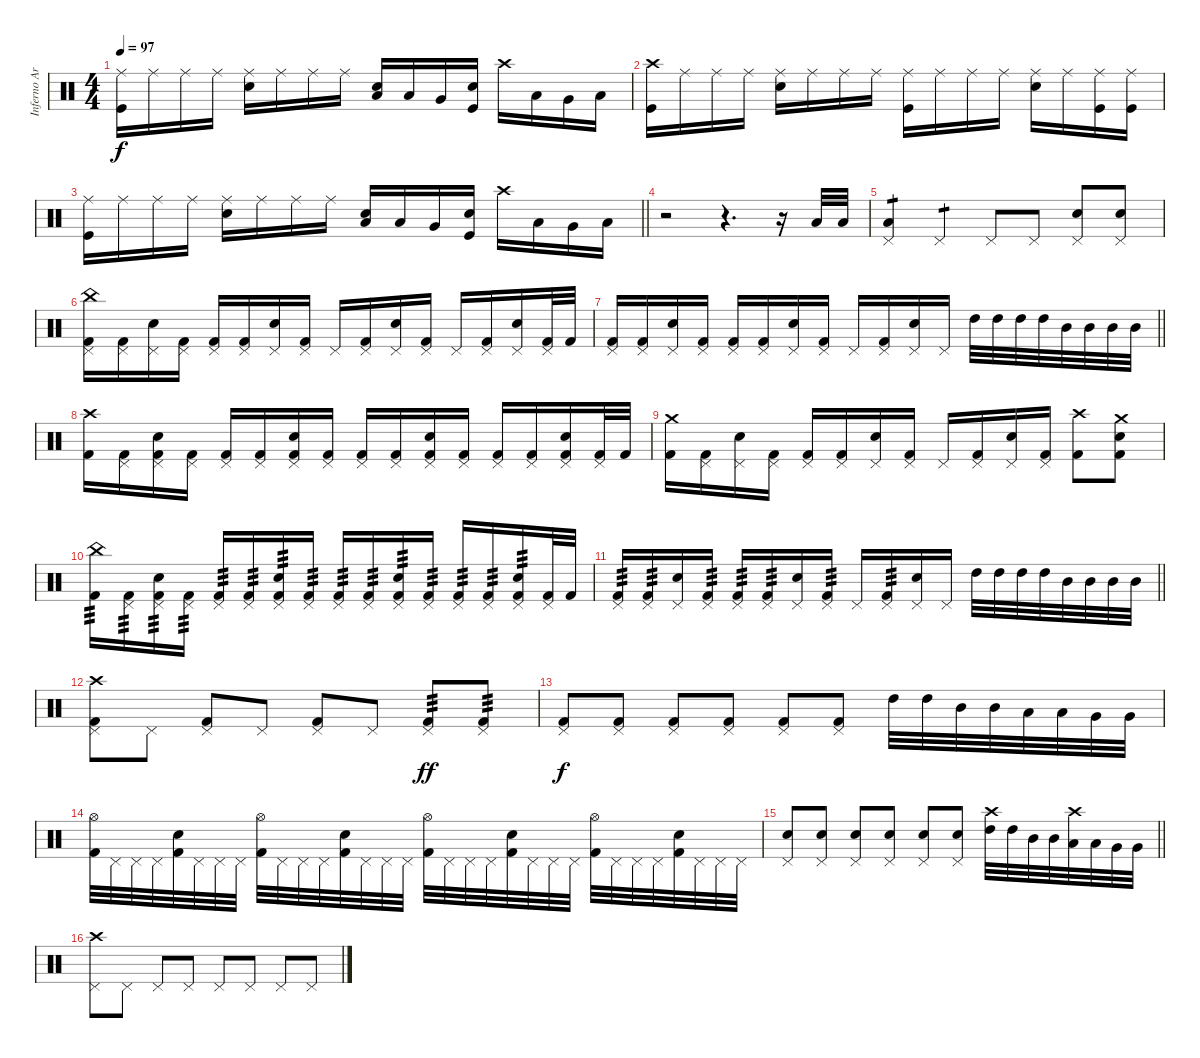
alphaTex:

\track ("Inferno Art" "Inferno Ar") {instrument percussion bank 7}
\staff {score}
\articulation defaults
\ts (4 4)
\tempo 97
\clef neutral
\ks c
("Ride (middle)" "Kick (hit)").16{dy f} "Ride (middle)".16 "Ride (middle)".16 "Ride (middle)".16 ("Ride (middle)" "Electric Snare (hit)").16 "Ride (middle)".16 "Ride (middle)".16 "Ride (middle)".16 ("Electric Snare (hit)" "Low Floor Tom (hit)").16 "Low Tom (hit)".16 "Very Low Tom (hit)".16 ("Electric Snare (hit)" "Kick (hit)").16 "Crash high (hit)".16 "Low Tom (hit)".16 "Very Low Tom (hit)".16 "Low Floor Tom (hit)".16 |
("Crash high (hit)" "Kick (hit)").16 "Ride (middle)".16 "Ride (middle)".16 "Ride (middle)".16 ("Ride (middle)" "Electric Snare (hit)").16 "Ride (middle)".16 "Ride (middle)".16 "Ride (middle)".16 ("Ride (middle)" "Kick (hit)").16 "Ride (middle)".16 "Ride (middle)".16 "Ride (middle)".16 ("Ride (middle)" "Electric Snare (hit)").16 "Ride (middle)".16 ("Ride (middle)" "Kick (hit)").16 ("Ride (middle)" "Kick (hit)").16 |
\barLineRight lightlight
("Ride (middle)" "Kick (hit)").16 "Ride (middle)".16 "Ride (middle)".16 "Ride (middle)".16 ("Ride (middle)" "Electric Snare (hit)").16 "Ride (middle)".16 "Ride (middle)".16 "Ride (middle)".16 ("Electric Snare (hit)" "Low Floor Tom (hit)").16 "Low Tom (hit)".16 "Very Low Tom (hit)".16 ("Electric Snare (hit)" "Kick (hit)").16 "Crash high (hit)".16 "Low Tom (hit)".16 "Very Low Tom (hit)".16 "Low Floor Tom (hit)".16 |
r.2 r.4{d} r.16 "Low Tom (hit)".32 "Low Tom (hit)".32 |
("Low Tom (hit)" "Pedal Hi-Hat (hit)").4{tp 1} "Pedal Hi-Hat (hit)".4{tp 1} "Pedal Hi-Hat (hit)".8 "Pedal Hi-Hat (hit)".8 ("Pedal Hi-Hat (hit)" "Snare (hit) 2").8 ("Pedal Hi-Hat (hit)" "Snare (hit) 2").8 |
("Pedal Hi-Hat (hit)" "Kick (hit) 2" "China (hit)").16 ("Pedal Hi-Hat (hit)" "Kick (hit) 2").16 ("Pedal Hi-Hat (hit)" "Electric Snare (hit)").16 ("Pedal Hi-Hat (hit)" "Kick (hit) 2").16 ("Pedal Hi-Hat (hit)" "Kick (hit) 2").16 ("Pedal Hi-Hat (hit)" "Kick (hit) 2").16 ("Pedal Hi-Hat (hit)" "Electric Snare (hit)").16 ("Pedal Hi-Hat (hit)" "Kick (hit) 2").16 "Pedal Hi-Hat (hit)".16 ("Pedal Hi-Hat (hit)" "Kick (hit) 2").16 ("Pedal Hi-Hat (hit)" "Electric Snare (hit)").16 ("Pedal Hi-Hat (hit)" "Kick (hit) 2").16 "Pedal Hi-Hat (hit)".16 ("Pedal Hi-Hat (hit)" "Kick (hit) 2").16 ("Pedal Hi-Hat (hit)" "Electric Snare (hit)").16 ("Pedal Hi-Hat (hit)" "Kick (hit) 2").32 "Kick (hit) 2".32 |
\barLineRight lightlight
("Pedal Hi-Hat (hit)" "Kick (hit) 2").16 ("Pedal Hi-Hat (hit)" "Kick (hit) 2").16 ("Pedal Hi-Hat (hit)" "Electric Snare (hit)").16 ("Pedal Hi-Hat (hit)" "Kick (hit) 2").16 ("Pedal Hi-Hat (hit)" "Kick (hit) 2").16 ("Pedal Hi-Hat (hit)" "Kick (hit) 2").16 ("Pedal Hi-Hat (hit)" "Electric Snare (hit)").16 ("Pedal Hi-Hat (hit)" "Kick (hit) 2").16 "Pedal Hi-Hat (hit)".16 ("Pedal Hi-Hat (hit)" "Kick (hit) 2").16 ("Pedal Hi-Hat (hit)" "Electric Snare (hit)").16 "Pedal Hi-Hat (hit)".16 "High Tom (hit)".32 "High Tom (hit)".32 "High Tom (hit)".32 "High Tom (hit)".32 "Mid Tom (hit)".32 "Mid Tom (hit)".32 "Mid Tom (hit)".32 "Mid Tom (hit)".32 |
("Crash high (hit)" "Kick (hit) 2").16 ("Pedal Hi-Hat (hit)" "Kick (hit) 2").16 ("Pedal Hi-Hat (hit)" "Electric Snare (hit)" "Kick (hit) 2").16 ("Pedal Hi-Hat (hit)" "Kick (hit) 2").16 ("Pedal Hi-Hat (hit)" "Kick (hit) 2").16 ("Pedal Hi-Hat (hit)" "Kick (hit) 2").16 ("Pedal Hi-Hat (hit)" "Electric Snare (hit)" "Kick (hit) 2").16 ("Pedal Hi-Hat (hit)" "Kick (hit) 2").16 ("Pedal Hi-Hat (hit)" "Kick (hit) 2").16 ("Pedal Hi-Hat (hit)" "Kick (hit) 2").16 ("Pedal Hi-Hat (hit)" "Electric Snare (hit)" "Kick (hit) 2").16 ("Pedal Hi-Hat (hit)" "Kick (hit) 2").16 ("Pedal Hi-Hat (hit)" "Kick (hit) 2").16 ("Pedal Hi-Hat (hit)" "Kick (hit) 2").16 ("Pedal Hi-Hat (hit)" "Electric Snare (hit)" "Kick (hit) 2").16 ("Pedal Hi-Hat (hit)" "Kick (hit) 2").32 "Kick (hit) 2".32 |
("Crash medium (hit)" "Kick (hit) 2").16 ("Pedal Hi-Hat (hit)" "Kick (hit) 2").16 ("Pedal Hi-Hat (hit)" "Electric Snare (hit)").16 ("Pedal Hi-Hat (hit)" "Kick (hit) 2").16 ("Pedal Hi-Hat (hit)" "Kick (hit) 2").16 ("Pedal Hi-Hat (hit)" "Kick (hit) 2").16 ("Pedal Hi-Hat (hit)" "Electric Snare (hit)").16 ("Pedal Hi-Hat (hit)" "Kick (hit) 2").16 "Pedal Hi-Hat (hit)".16 ("Pedal Hi-Hat (hit)" "Kick (hit) 2").16 ("Pedal Hi-Hat (hit)" "Electric Snare (hit)").16 ("Pedal Hi-Hat (hit)" "Kick (hit) 2").16 ("Crash high (hit)" "Kick (hit) 2").8 ("Crash medium (hit)" "Electric Snare (hit)" "Kick (hit) 2").8 |
("China (hit)" "Kick (hit) 2").16{tp 3} ("Pedal Hi-Hat (hit)" "Kick (hit) 2").16{tp 3} ("Pedal Hi-Hat (hit)" "Electric Snare (hit)" "Kick (hit) 2").16{tp 3} ("Pedal Hi-Hat (hit)" "Kick (hit) 2").16{tp 3} ("Pedal Hi-Hat (hit)" "Kick (hit) 2").16{tp 3} ("Pedal Hi-Hat (hit)" "Kick (hit) 2").16{tp 3} ("Pedal Hi-Hat (hit)" "Electric Snare (hit)" "Kick (hit) 2").16{tp 3} ("Pedal Hi-Hat (hit)" "Kick (hit) 2").16{tp 3} ("Pedal Hi-Hat (hit)" "Kick (hit) 2").16{tp 3} ("Pedal Hi-Hat (hit)" "Kick (hit) 2").16{tp 3} ("Pedal Hi-Hat (hit)" "Electric Snare (hit)" "Kick (hit) 2").16{tp 3} ("Pedal Hi-Hat (hit)" "Kick (hit) 2").16{tp 3} ("Pedal Hi-Hat (hit)" "Kick (hit) 2").16{tp 3} ("Pedal Hi-Hat (hit)" "Kick (hit) 2").16{tp 3} ("Pedal Hi-Hat (hit)" "Electric Snare (hit)" "Kick (hit) 2").16{tp 3} ("Pedal Hi-Hat (hit)" "Kick (hit) 2").32 "Kick (hit) 2".32 |
\barLineRight lightlight
("Pedal Hi-Hat (hit)" "Kick (hit) 2").16{tp 3} ("Pedal Hi-Hat (hit)" "Kick (hit) 2").16{tp 3} ("Pedal Hi-Hat (hit)" "Electric Snare (hit)").16 ("Pedal Hi-Hat (hit)" "Kick (hit) 2").16{tp 3} ("Pedal Hi-Hat (hit)" "Kick (hit) 2").16{tp 3} ("Pedal Hi-Hat (hit)" "Kick (hit) 2").16{tp 3} ("Pedal Hi-Hat (hit)" "Electric Snare (hit)").16 ("Pedal Hi-Hat (hit)" "Kick (hit) 2").16{tp 3} "Pedal Hi-Hat (hit)".16 ("Pedal Hi-Hat (hit)" "Kick (hit) 2").16{tp 3} ("Pedal Hi-Hat (hit)" "Electric Snare (hit)").16 "Pedal Hi-Hat (hit)".16 "High Tom (hit)".32 "High Tom (hit)".32 "High Tom (hit)".32 "High Tom (hit)".32 "Mid Tom (hit)".32 "Mid Tom (hit)".32 "Mid Tom (hit)".32 "Mid Tom (hit)".32 |
("Pedal Hi-Hat (hit)" "Kick (hit) 2" "Crash high (hit)").8 "Pedal Hi-Hat (hit)".8 ("Pedal Hi-Hat (hit)" "Kick (hit) 2").8 "Pedal Hi-Hat (hit)".8 ("Pedal Hi-Hat (hit)" "Kick (hit) 2").8 "Pedal Hi-Hat (hit)".8 ("Pedal Hi-Hat (hit)" "Kick (hit) 2").8{tp 3 dy ff} ("Pedal Hi-Hat (hit)" "Kick (hit) 2").8{tp 3} |
("Pedal Hi-Hat (hit)" "Kick (hit) 2").8{dy f} ("Pedal Hi-Hat (hit)" "Kick (hit) 2").8 ("Pedal Hi-Hat (hit)" "Kick (hit) 2").8 ("Pedal Hi-Hat (hit)" "Kick (hit) 2").8 ("Pedal Hi-Hat (hit)" "Kick (hit) 2").8 ("Pedal Hi-Hat (hit)" "Kick (hit) 2").8 "High Tom (hit)".32 "High Tom (hit)".32 "Mid Tom (hit)".32 "Mid Tom (hit)".32 "Low Tom (hit)".32 "Low Tom (hit)".32 "Very Low Tom (hit)".32 "Very Low Tom (hit)".32 |
("Hi-Hat (open)" "Kick (hit) 2").32 "Pedal Hi-Hat (hit)".32 "Pedal Hi-Hat (hit)".32 "Pedal Hi-Hat (hit)".32 ("Electric Snare (hit)" "Kick (hit) 2").32 "Pedal Hi-Hat (hit)".32 "Pedal Hi-Hat (hit)".32 "Pedal Hi-Hat (hit)".32 ("Hi-Hat (open)" "Kick (hit) 2").32 "Pedal Hi-Hat (hit)".32 "Pedal Hi-Hat (hit)".32 "Pedal Hi-Hat (hit)".32 ("Electric Snare (hit)" "Kick (hit) 2").32 "Pedal Hi-Hat (hit)".32 "Pedal Hi-Hat (hit)".32 "Pedal Hi-Hat (hit)".32 ("Hi-Hat (open)" "Kick (hit) 2").32 "Pedal Hi-Hat (hit)".32 "Pedal Hi-Hat (hit)".32 "Pedal Hi-Hat (hit)".32 ("Electric Snare (hit)" "Kick (hit) 2").32 "Pedal Hi-Hat (hit)".32 "Pedal Hi-Hat (hit)".32 "Pedal Hi-Hat (hit)".32 ("Hi-Hat (open)" "Kick (hit) 2").32 "Pedal Hi-Hat (hit)".32 "Pedal Hi-Hat (hit)".32 "Pedal Hi-Hat (hit)".32 ("Electric Snare (hit)" "Kick (hit) 2").32 "Pedal Hi-Hat (hit)".32 "Pedal Hi-Hat (hit)".32 "Pedal Hi-Hat (hit)".32 |
\barLineRight lightlight
("Pedal Hi-Hat (hit)" "Electric Snare (hit)").8 ("Pedal Hi-Hat (hit)" "Electric Snare (hit)").8 ("Pedal Hi-Hat (hit)" "Electric Snare (hit)").8 ("Pedal Hi-Hat (hit)" "Electric Snare (hit)").8 ("Pedal Hi-Hat (hit)" "Electric Snare (hit)").8 ("Pedal Hi-Hat (hit)" "Electric Snare (hit)").8 ("High Tom (hit)" "Crash high (hit)").32 "High Tom (hit)".32 "Mid Tom (hit)".32 "Mid Tom (hit)".32 ("Low Tom (hit)" "Crash high (hit)").32 "Low Tom (hit)".32 "Very Low Tom (hit)".32 "Very Low Tom (hit)".32 |
("Pedal Hi-Hat (hit)" "Crash high (hit)").8 "Pedal Hi-Hat (hit)".8 "Pedal Hi-Hat (hit)".8 "Pedal Hi-Hat (hit)".8 "Pedal Hi-Hat (hit)".8 "Pedal Hi-Hat (hit)".8 "Pedal Hi-Hat (hit)".8 "Pedal Hi-Hat (hit)".8
